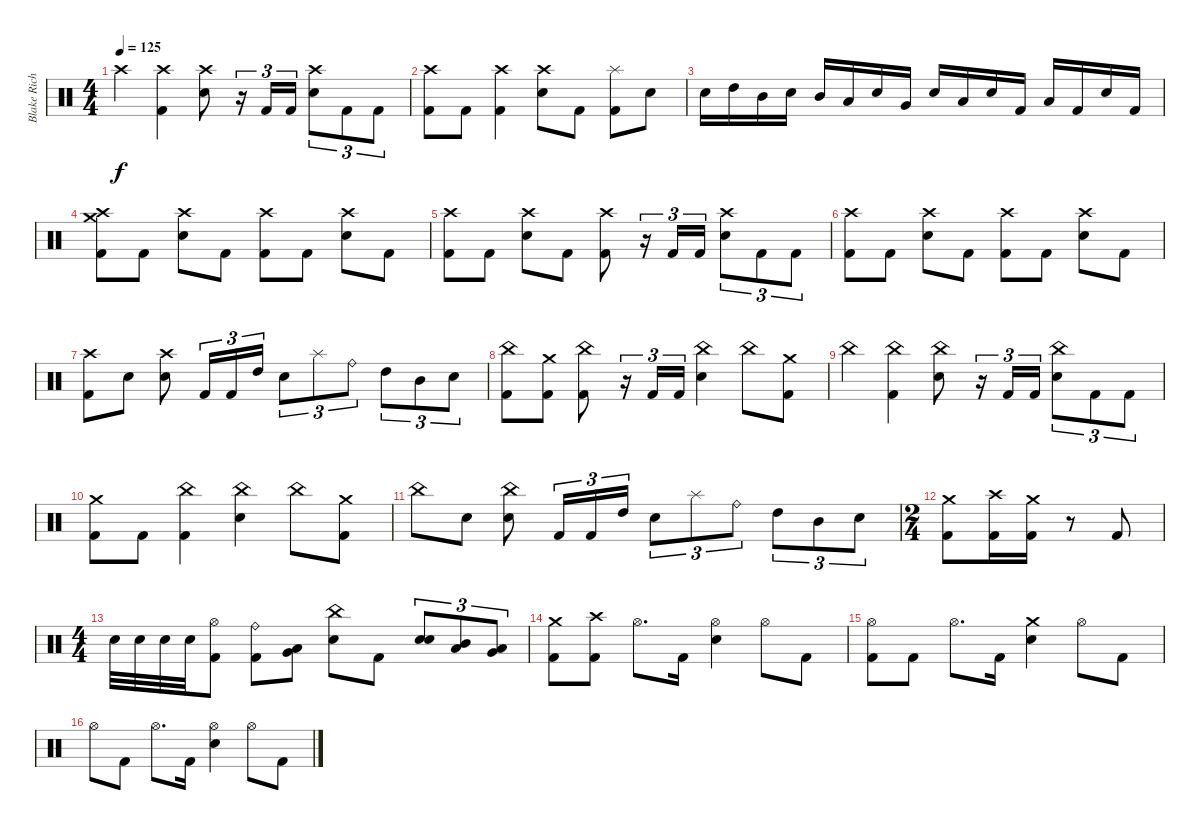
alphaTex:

\track ("Blake Richardson - Drums" "Blake Rich") {instrument percussion}
\staff {score}
\articulation defaults
\ts (4 4)
\tempo 125
\clef neutral
\ks c "Crash high (hit)".4{dy f}
("Crash high (hit)" "Kick (hit) 2").4 ("Crash high (hit)" "Electric Snare (hit)").8 r.16{tu (3 2)} "Kick (hit) 2".16{tu (3 2)} "Kick (hit) 2".16{tu (3 2)} ("Crash high (hit)" "Electric Snare (hit)").8{tu (3 2)} "Kick (hit) 2".8{tu (3 2)} "Kick (hit) 2".8{tu (3 2)} |
("Crash high (hit)" "Kick (hit) 2").8 "Kick (hit) 2".8 ("Crash high (hit)" "Kick (hit) 2").4 ("Crash high (hit)" "Electric Snare (hit)").8 "Kick (hit) 2".8 ("Splash (hit)" "Kick (hit) 2").8 "Electric Snare (hit)".8 |
"Electric Snare (hit)".16 "High Tom (hit)".16 "Mid Tom (hit)".16 "Electric Snare (hit)".16 "Mid Tom (hit)".16 "Low Tom (hit)".16 "Electric Snare (hit)".16 "Very Low Tom (hit)".16 "Electric Snare (hit)".16 "Low Floor Tom (hit)".16 "Electric Snare (hit)".16 "Kick (hit) 2".16 "Low Floor Tom (hit)".16 "Kick (hit) 2".16 "Electric Snare (hit)".16 "Kick (hit) 2".16 |
("Crash high (hit)" "Crash medium (hit)" "Kick (hit) 2").8 "Kick (hit) 2".8 ("Crash high (hit)" "Electric Snare (hit)").8 "Kick (hit) 2".8 ("Crash high (hit)" "Kick (hit) 2").8 "Kick (hit) 2".8 ("Crash high (hit)" "Electric Snare (hit)").8 "Kick (hit) 2".8 |
("Crash high (hit)" "Kick (hit) 2").8 "Kick (hit) 2".8 ("Crash high (hit)" "Electric Snare (hit)").8 "Kick (hit) 2".8 ("Crash high (hit)" "Kick (hit) 2").8 r.16{tu (3 2)} "Kick (hit) 2".16{tu (3 2)} "Kick (hit) 2".16{tu (3 2)} ("Crash high (hit)" "Electric Snare (hit)").8{tu (3 2)} "Kick (hit) 2".8{tu (3 2)} "Kick (hit) 2".8{tu (3 2)} |
("Crash high (hit)" "Kick (hit) 2").8 "Kick (hit) 2".8 ("Crash high (hit)" "Electric Snare (hit)").8 "Kick (hit) 2".8 ("Crash high (hit)" "Kick (hit) 2").8 "Kick (hit) 2".8 ("Crash high (hit)" "Electric Snare (hit)").8 "Kick (hit) 2".8 |
("Crash high (hit)" "Kick (hit) 2").8 "Electric Snare (hit)".8 ("Crash high (hit)" "Electric Snare (hit)").8 "Kick (hit) 2".16{tu (3 2)} "Kick (hit) 2".16{tu (3 2)} "High Tom (hit)".16{tu (3 2)} "Electric Snare (hit)".8{tu (3 2)} "Splash (hit)".8{tu (3 2)} "Ride (bell)".8{tu (3 2)} "High Tom (hit)".8{tu (3 2)} "Mid Tom (hit)".8{tu (3 2)} "Electric Snare (hit)".8{tu (3 2)} |
("China (hit)" "Kick (hit) 2").8 ("Crash medium (hit)" "Kick (hit) 2").8 ("China (hit)" "Kick (hit) 2").8 r.16{tu (3 2)} "Kick (hit) 2".16{tu (3 2)} "Kick (hit) 2".16{tu (3 2)} ("China (hit)" "Electric Snare (hit)").4 "China (hit)".8 ("Crash medium (hit)" "Kick (hit) 2").8 |
"China (hit)".4 ("China (hit)" "Kick (hit) 2").4 ("China (hit)" "Electric Snare (hit)").8 r.16{tu (3 2)} "Kick (hit) 2".16{tu (3 2)} "Kick (hit) 2".16{tu (3 2)} ("China (hit)" "Electric Snare (hit)").8{tu (3 2)} "Kick (hit) 2".8{tu (3 2)} "Kick (hit) 2".8{tu (3 2)} |
("Crash medium (hit)" "Kick (hit) 2").8 "Kick (hit) 2".8 ("China (hit)" "Kick (hit) 2").4 ("China (hit)" "Electric Snare (hit)").4 "China (hit)".8 ("Crash medium (hit)" "Kick (hit) 2").8 |
"China (hit)".8 "Electric Snare (hit)".8 ("China (hit)" "Electric Snare (hit)").8 "Kick (hit) 2".16{tu (3 2)} "Kick (hit) 2".16{tu (3 2)} "High Tom (hit)".16{tu (3 2)} "Electric Snare (hit)".8{tu (3 2)} "Splash (hit)".8{tu (3 2)} "Ride (bell)".8{tu (3 2)} "High Tom (hit)".8{tu (3 2)} "Mid Tom (hit)".8{tu (3 2)} "Electric Snare (hit)".8{tu (3 2)} |
\ts (2 4)
("Crash medium (hit)" "Kick (hit) 2").8 ("Crash high (hit)" "Kick (hit) 2").16 ("Crash medium (hit)" "Kick (hit) 2").16 r.8 "Kick (hit) 2".8 |
\ts (4 4)
"Electric Snare (hit)".32 "Electric Snare (hit)".32 "Electric Snare (hit)".32 "Electric Snare (hit)".32 ("Hi-Hat (open)" "Kick (hit) 2").8 ("Ride (bell)" "Kick (hit) 2").8 ("Low Tom (hit)" "Very Low Tom (hit)").8 ("China (hit)" "Electric Snare (hit)").8 "Kick (hit) 2".8 ("Electric Snare (hit)" "Electric Snare (hit)").8{tu (3 2)} ("Mid Tom (hit)" "Low Tom (hit)").8{tu (3 2)} ("Low Tom (hit)" "Very Low Tom (hit)").8{tu (3 2)} |
("Crash medium (hit)" "Kick (hit) 2").8 ("Crash high (hit)" "Kick (hit) 2").8 "Hi-Hat (open)".8{d} "Kick (hit) 2".16 ("Hi-Hat (open)" "Electric Snare (hit)").4 "Hi-Hat (open)".8 "Kick (hit) 2".8 |
("Hi-Hat (open)" "Kick (hit) 2").8 "Kick (hit) 2".8 "Hi-Hat (open)".8{d} "Kick (hit) 2".16 ("Crash medium (hit)" "Electric Snare (hit)").4 "Hi-Hat (open)".8 "Kick (hit) 2".8 |
"Hi-Hat (open)".8 "Kick (hit) 2".8 "Hi-Hat (open)".8{d} "Kick (hit) 2".16 ("Hi-Hat (open)" "Electric Snare (hit)").4 "Hi-Hat (open)".8 "Kick (hit) 2".8
